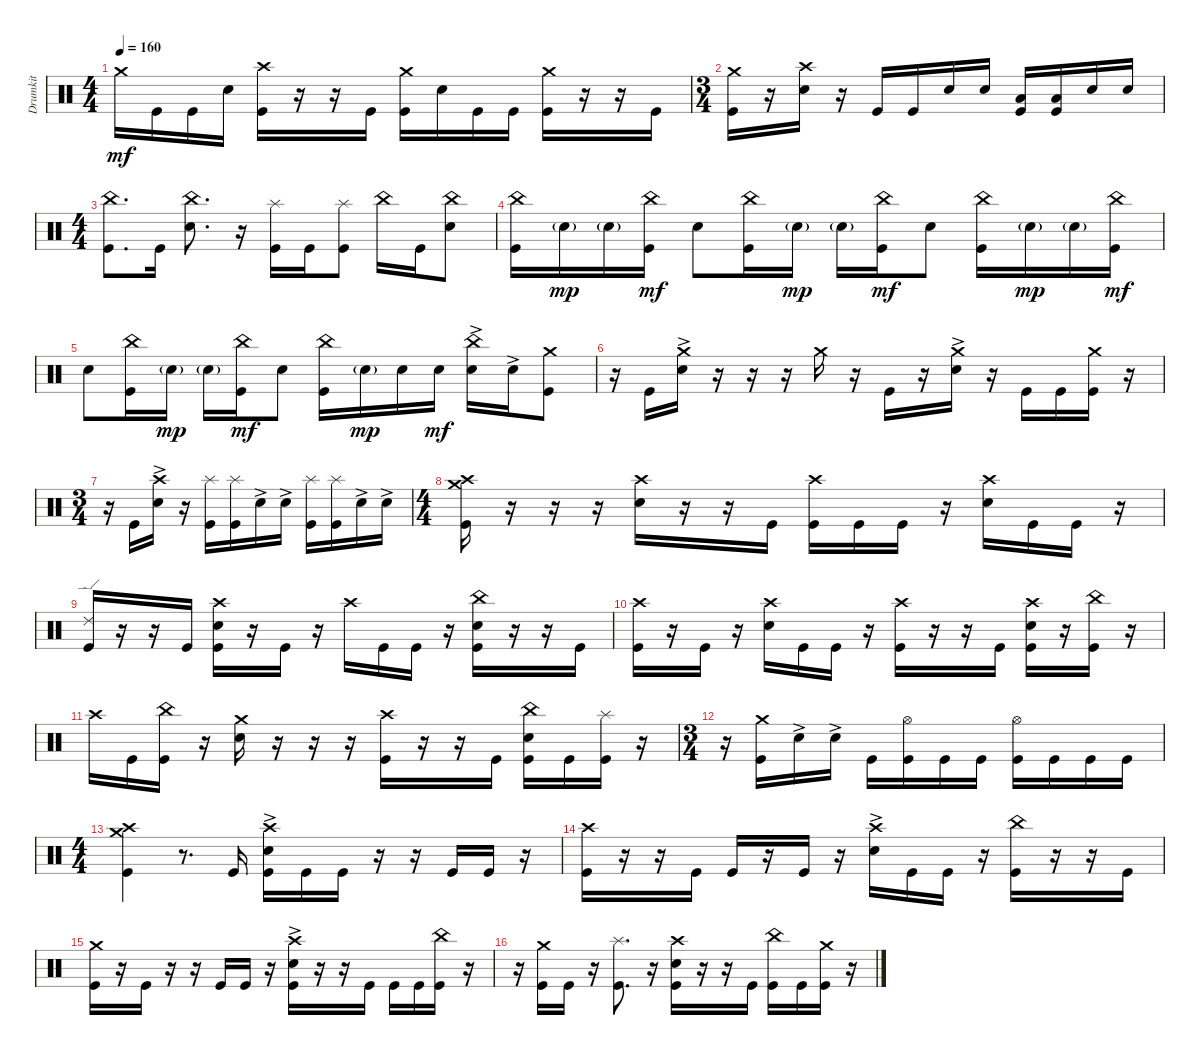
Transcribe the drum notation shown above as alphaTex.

\track ("Drumkit" "Drumkit") {instrument percussion}
\staff {score}
\articulation defaults
\ts (4 4)
\tempo 160
\clef neutral
\ks c "Crash medium (hit)".16{dy mf} "Kick (hit)".16 "Kick (hit)".16 "Snare (hit) 2".16
("Kick (hit)" "Crash high (hit)").16 r.16 r.16 "Kick (hit)".16 ("Kick (hit)" "Crash medium (hit)").16 "Snare (hit) 2".16 "Kick (hit)".16 "Kick (hit)".16 ("Kick (hit)" "Crash medium (hit)").16 r.16 r.16 "Kick (hit)".16 |
\ts (3 4)
("Kick (hit)" "Crash medium (hit)").16 r.16 ("Snare (hit) 2" "Crash high (hit)").16 r.16 "Kick (hit)".16 "Kick (hit)".16 "Snare (hit) 2".16 "Snare (hit) 2".16 ("Low Tom (hit)" "Kick (hit)").16 ("Low Tom (hit)" "Kick (hit)").16 "Snare (hit) 2".16 "Snare (hit) 2".16 |
\ts (4 4)
("Kick (hit)" "China (hit)").8{d} "Kick (hit)".16 ("Snare (hit) 2" "China (hit)").8{d} r.16 ("Kick (hit)" "Splash (hit)").16 "Kick (hit)".16 ("Kick (hit)" "Splash (hit)").8 "China (hit)".16 "Kick (hit)".16 ("Snare (hit) 2" "China (hit)").8 |
("Kick (hit)" "China (hit)").16 "Snare (hit) 2"{g}.16{dy mp} "Snare (hit) 2"{g}.16 ("Kick (hit)" "China (hit)").16{dy mf} "Snare (hit) 2".8 ("Kick (hit)" "China (hit)").16 "Snare (hit) 2"{g}.16{dy mp} "Snare (hit) 2"{g}.16 ("Kick (hit)" "China (hit)").16{dy mf} "Snare (hit) 2".8 ("Kick (hit)" "China (hit)").16 "Snare (hit) 2"{g}.16{dy mp} "Snare (hit) 2"{g}.16 ("Kick (hit)" "China (hit)").16{dy mf} |
"Snare (hit) 2".8 ("Kick (hit)" "China (hit)").16 "Snare (hit) 2"{g}.16{dy mp} "Snare (hit) 2"{g}.16 ("Kick (hit)" "China (hit)").16{dy mf} "Snare (hit) 2".8 ("Kick (hit)" "China (hit)").16 "Snare (hit) 2"{g}.16{dy mp} "Snare (hit) 2".16 "Snare (hit) 2".16{dy mf} ("China (hit)" "Snare (hit) 2"{ac}).16 "Snare (hit) 2"{ac}.16 ("Kick (hit)" "Crash medium (hit)").8 |
r.16 "Kick (hit)".16 ("Snare (hit) 2"{ac} "Crash medium (hit)").16 r.16 r.16 r.16 "Crash medium (hit)".16 r.16 "Kick (hit)".16 r.16 ("Snare (hit) 2"{ac} "Crash medium (hit)").16 r.16 "Kick (hit)".16 "Kick (hit)".16 ("Crash medium (hit)" "Kick (hit)").16 r.16 |
\ts (3 4)
r.16 "Kick (hit)".16 ("Snare (hit) 2"{ac} "Crash high (hit)").16 r.16 ("Kick (hit)" "Splash (hit)").16 ("Kick (hit)" "Splash (hit)").16 "Snare (hit) 2"{ac}.16 "Snare (hit) 2"{ac}.16 ("Splash (hit)" "Kick (hit)").16 ("Splash (hit)" "Kick (hit)").16 "Snare (hit) 2"{ac}.16 "Snare (hit) 2"{ac}.16 |
\ts (4 4)
("Crash high (hit)" "Kick (hit)" "Crash medium (hit)").16 r.16 r.16 r.16 ("Crash high (hit)" "Snare (hit) 2").16 r.16 r.16 "Kick (hit)".16 ("Crash high (hit)" "Kick (hit)").16 "Kick (hit)".16 "Kick (hit)".16 r.16 ("Crash high (hit)" "Snare (hit) 2").16 "Kick (hit)".16 "Kick (hit)".16 r.16 |
("Kick (hit)" "Ride (edge) 2").16 r.16 r.16 "Kick (hit)".16 ("Kick (hit)" "Crash high (hit)" "Snare (hit) 2").16 r.16 "Kick (hit)".16 r.16 "Crash high (hit)".16 "Kick (hit)".16 "Kick (hit)".16 r.16 ("Kick (hit)" "Snare (hit) 2" "China (hit)").16 r.16 r.16 "Kick (hit)".16 |
("Kick (hit)" "Crash high (hit)").16 r.16 "Kick (hit)".16 r.16 ("Crash high (hit)" "Snare (hit) 2").16 "Kick (hit)".16 "Kick (hit)".16 r.16 ("Kick (hit)" "Crash high (hit)").16 r.16 r.16 "Kick (hit)".16 ("Kick (hit)" "Snare (hit) 2" "Crash high (hit)").16 r.16 ("Kick (hit)" "China (hit)").16 r.16 |
"Crash high (hit)".16 "Kick (hit)".16 ("Kick (hit)" "China (hit)").16 r.16 ("Snare (hit) 2" "Crash medium (hit)").16 r.16 r.16 r.16 ("Crash high (hit)" "Kick (hit)").16 r.16 r.16 "Kick (hit)".16 ("Snare (hit) 2" "Kick (hit)" "China (hit)").16 "Kick (hit)".16 ("Kick (hit)" "Splash (hit)").16 r.16 |
\ts (3 4)
r.16 ("Crash medium (hit)" "Kick (hit)").16 "Snare (hit) 2"{ac}.16 "Snare (hit) 2"{ac}.16 "Kick (hit)".16 ("Kick (hit)" "Hi-Hat (open)").16 "Kick (hit)".16 "Kick (hit)".16 ("Kick (hit)" "Hi-Hat (open)").16 "Kick (hit)".16 "Kick (hit)".16 "Kick (hit)".16 |
\ts (4 4)
("Crash high (hit)" "Kick (hit)" "Crash medium (hit)").4 r.8{d} "Kick (hit)".16 ("Crash high (hit)" "Kick (hit)" "Snare (hit) 2"{ac}).16 "Kick (hit)".16 "Kick (hit)".16 r.16 r.16 "Kick (hit)".16 "Kick (hit)".16 r.16 |
("Kick (hit)" "Crash high (hit)").16 r.16 r.16 "Kick (hit)".16 "Kick (hit)".16 r.16 "Kick (hit)".16 r.16 ("Crash high (hit)" "Snare (hit) 2"{ac}).16 "Kick (hit)".16 "Kick (hit)".16 r.16 ("Kick (hit)" "China (hit)").16 r.16 r.16 "Kick (hit)".16 |
("Kick (hit)" "Crash medium (hit)").16 r.16 "Kick (hit)".16 r.16 r.16 "Kick (hit)".16 "Kick (hit)".16 r.16 ("Kick (hit)" "Crash high (hit)" "Snare (hit) 2"{ac}).16 r.16 r.16 "Kick (hit)".16 "Kick (hit)".16 "Kick (hit)".16 ("Kick (hit)" "China (hit)").16 r.16 |
r.16 ("Kick (hit)" "Crash medium (hit)").16 "Kick (hit)".16 r.16 ("Splash (hit)" "Kick (hit)").8{d} r.16 ("Crash high (hit)" "Kick (hit)" "Snare (hit) 2").16 r.16 r.16 "Kick (hit)".16 ("Kick (hit)" "China (hit)").16 "Kick (hit)".16 ("Kick (hit)" "Crash medium (hit)").16 r.16
